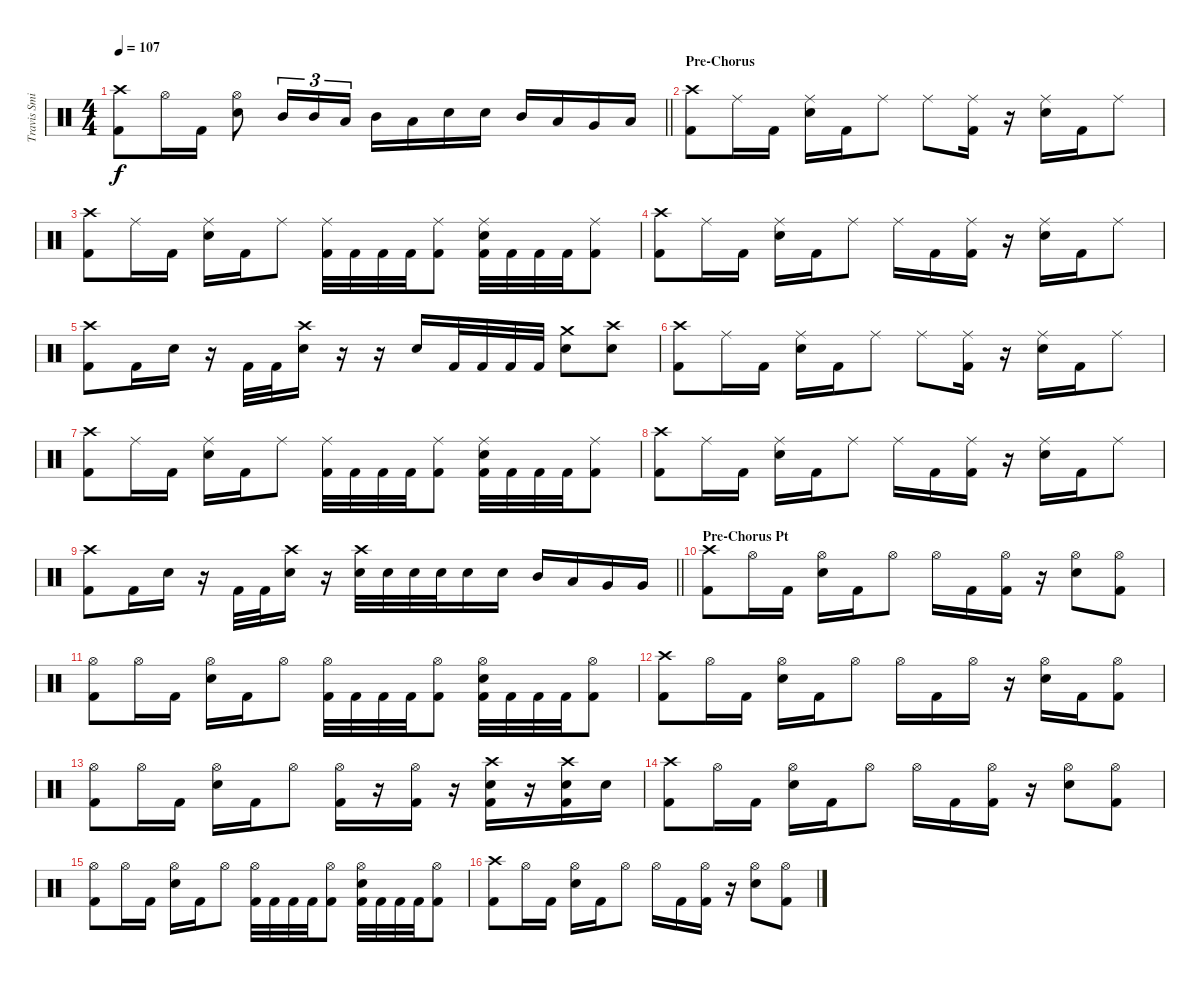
\track ("Travis Smith" "Travis Smi") {instrument percussion}
\staff {score}
\articulation defaults
\ts (4 4)
\tempo 107
\clef neutral
\barLineRight lightlight
\ks c
("Crash high (hit)" "Kick (hit) 2").8{dy f} "Hi-Hat (open)".16 "Kick (hit) 2".16 ("Hi-Hat (open)" "Electric Snare (hit)").8 "Mid Tom (hit)".16{tu (3 2)} "Mid Tom (hit)".16{tu (3 2)} "Low Tom (hit)".16{tu (3 2)} "Mid Tom (hit)".16 "Low Tom (hit)".16 "Electric Snare (hit)".16 "Electric Snare (hit)".16 "Mid Tom (hit)".16 "Low Tom (hit)".16 "Very Low Tom (hit)".16 "Low Floor Tom (hit)".16 |
\section ("" "Pre-Chorus")
("Crash high (hit)" "Kick (hit) 2").8 "Ride (middle)".16 "Kick (hit) 2".16 ("Ride (middle)" "Electric Snare (hit)").16 "Kick (hit) 2".16 "Ride (middle)".8 "Ride (middle)".8 ("Ride (middle)" "Kick (hit) 2").16 r.16 ("Ride (middle)" "Electric Snare (hit)").16 "Kick (hit) 2".16 "Ride (middle)".8 |
("Crash high (hit)" "Kick (hit) 2").8 "Ride (middle)".16 "Kick (hit) 2".16 ("Ride (middle)" "Electric Snare (hit)").16 "Kick (hit) 2".16 "Ride (middle)".8 ("Ride (middle)" "Kick (hit) 2").32 "Kick (hit) 2".32 "Kick (hit) 2".32 "Kick (hit) 2".32 ("Ride (middle)" "Kick (hit) 2").8 ("Ride (middle)" "Electric Snare (hit)" "Kick (hit) 2").32 "Kick (hit) 2".32 "Kick (hit) 2".32 "Kick (hit) 2".32 ("Ride (middle)" "Kick (hit) 2").8 |
("Crash high (hit)" "Kick (hit) 2").8 "Ride (middle)".16 "Kick (hit) 2".16 ("Ride (middle)" "Electric Snare (hit)").16 "Kick (hit) 2".16 "Ride (middle)".8 "Ride (middle)".16 "Kick (hit) 2".16 ("Ride (middle)" "Kick (hit) 2").16 r.16 ("Ride (middle)" "Electric Snare (hit)").16 "Kick (hit) 2".16 "Ride (middle)".8 |
("Crash high (hit)" "Kick (hit) 2").8 "Kick (hit) 2".16 "Electric Snare (hit)".16 r.16 "Kick (hit) 2".32 "Kick (hit) 2".32 ("Crash high (hit)" "Electric Snare (hit)").16 r.16 r.16 "Electric Snare (hit)".16 "Kick (hit) 2".32 "Kick (hit) 2".32 "Kick (hit) 2".32 "Kick (hit) 2".32 ("Crash medium (hit)" "Electric Snare (hit)").8 ("Crash high (hit)" "Electric Snare (hit)").8 |
("Crash high (hit)" "Kick (hit) 2").8 "Ride (middle)".16 "Kick (hit) 2".16 ("Ride (middle)" "Electric Snare (hit)").16 "Kick (hit) 2".16 "Ride (middle)".8 "Ride (middle)".8 ("Ride (middle)" "Kick (hit) 2").16 r.16 ("Ride (middle)" "Electric Snare (hit)").16 "Kick (hit) 2".16 "Ride (middle)".8 |
("Crash high (hit)" "Kick (hit) 2").8 "Ride (middle)".16 "Kick (hit) 2".16 ("Ride (middle)" "Electric Snare (hit)").16 "Kick (hit) 2".16 "Ride (middle)".8 ("Ride (middle)" "Kick (hit) 2").32 "Kick (hit) 2".32 "Kick (hit) 2".32 "Kick (hit) 2".32 ("Ride (middle)" "Kick (hit) 2").8 ("Ride (middle)" "Electric Snare (hit)" "Kick (hit) 2").32 "Kick (hit) 2".32 "Kick (hit) 2".32 "Kick (hit) 2".32 ("Ride (middle)" "Kick (hit) 2").8 |
("Crash high (hit)" "Kick (hit) 2").8 "Ride (middle)".16 "Kick (hit) 2".16 ("Ride (middle)" "Electric Snare (hit)").16 "Kick (hit) 2".16 "Ride (middle)".8 "Ride (middle)".16 "Kick (hit) 2".16 ("Ride (middle)" "Kick (hit) 2").16 r.16 ("Ride (middle)" "Electric Snare (hit)").16 "Kick (hit) 2".16 "Ride (middle)".8 |
\barLineRight lightlight
("Crash high (hit)" "Kick (hit) 2").8 "Kick (hit) 2".16 "Electric Snare (hit)".16 r.16 "Kick (hit) 2".32 "Kick (hit) 2".32 ("Crash high (hit)" "Electric Snare (hit)").16 r.16 ("Crash high (hit)" "Electric Snare (hit)").32 "Electric Snare (hit)".32 "Electric Snare (hit)".32 "Electric Snare (hit)".32 "Electric Snare (hit)".16 "Electric Snare (hit)".16 "Mid Tom (hit)".16 "Low Tom (hit)".16 "Very Low Tom (hit)".16 "Very Low Tom (hit)".16 |
\section ("" "Pre-Chorus Pt")
("Crash high (hit)" "Kick (hit) 2").8 "Hi-Hat (open)".16 "Kick (hit) 2".16 ("Hi-Hat (open)" "Electric Snare (hit)").16 "Kick (hit) 2".16 "Hi-Hat (open)".8 "Hi-Hat (open)".16 "Kick (hit) 2".16 ("Hi-Hat (open)" "Kick (hit) 2").16 r.16 ("Hi-Hat (open)" "Electric Snare (hit)").8 ("Hi-Hat (open)" "Kick (hit) 2").8 |
("Hi-Hat (open)" "Kick (hit) 2").8 "Hi-Hat (open)".16 "Kick (hit) 2".16 ("Hi-Hat (open)" "Electric Snare (hit)").16 "Kick (hit) 2".16 "Hi-Hat (open)".8 ("Hi-Hat (open)" "Kick (hit) 2").32 "Kick (hit) 2".32 "Kick (hit) 2".32 "Kick (hit) 2".32 ("Hi-Hat (open)" "Kick (hit) 2").8 ("Hi-Hat (open)" "Electric Snare (hit)" "Kick (hit) 2").32 "Kick (hit) 2".32 "Kick (hit) 2".32 "Kick (hit) 2".32 ("Hi-Hat (open)" "Kick (hit) 2").8 |
("Crash high (hit)" "Kick (hit) 2").8 "Hi-Hat (open)".16 "Kick (hit) 2".16 ("Hi-Hat (open)" "Electric Snare (hit)").16 "Kick (hit) 2".16 "Hi-Hat (open)".8 "Hi-Hat (open)".16 "Kick (hit) 2".16 "Hi-Hat (open)".16 r.16 ("Hi-Hat (open)" "Electric Snare (hit)").16 "Kick (hit) 2".16 ("Hi-Hat (open)" "Kick (hit) 2").8 |
("Hi-Hat (open)" "Kick (hit) 2").8 "Hi-Hat (open)".16 "Kick (hit) 2".16 ("Hi-Hat (open)" "Electric Snare (hit)").16 "Kick (hit) 2".16 "Hi-Hat (open)".8 ("Hi-Hat (open)" "Kick (hit) 2").16 r.16 ("Hi-Hat (open)" "Kick (hit) 2").16 r.16 ("Crash high (hit)" "Electric Snare (hit)" "Kick (hit) 2").16 r.16 ("Crash high (hit)" "Electric Snare (hit)" "Kick (hit) 2").16 "Electric Snare (hit)".16 |
("Crash high (hit)" "Kick (hit) 2").8 "Hi-Hat (open)".16 "Kick (hit) 2".16 ("Hi-Hat (open)" "Electric Snare (hit)").16 "Kick (hit) 2".16 "Hi-Hat (open)".8 "Hi-Hat (open)".16 "Kick (hit) 2".16 ("Hi-Hat (open)" "Kick (hit) 2").16 r.16 ("Hi-Hat (open)" "Electric Snare (hit)").8 ("Hi-Hat (open)" "Kick (hit) 2").8 |
("Hi-Hat (open)" "Kick (hit) 2").8 "Hi-Hat (open)".16 "Kick (hit) 2".16 ("Hi-Hat (open)" "Electric Snare (hit)").16 "Kick (hit) 2".16 "Hi-Hat (open)".8 ("Hi-Hat (open)" "Kick (hit) 2").32 "Kick (hit) 2".32 "Kick (hit) 2".32 "Kick (hit) 2".32 ("Hi-Hat (open)" "Kick (hit) 2").8 ("Hi-Hat (open)" "Electric Snare (hit)" "Kick (hit) 2").32 "Kick (hit) 2".32 "Kick (hit) 2".32 "Kick (hit) 2".32 ("Hi-Hat (open)" "Kick (hit) 2").8 |
("Crash high (hit)" "Kick (hit) 2").8 "Hi-Hat (open)".16 "Kick (hit) 2".16 ("Hi-Hat (open)" "Electric Snare (hit)").16 "Kick (hit) 2".16 "Hi-Hat (open)".8 "Hi-Hat (open)".16 "Kick (hit) 2".16 ("Hi-Hat (open)" "Kick (hit) 2").16 r.16 ("Hi-Hat (open)" "Electric Snare (hit)").8 ("Hi-Hat (open)" "Kick (hit) 2").8
